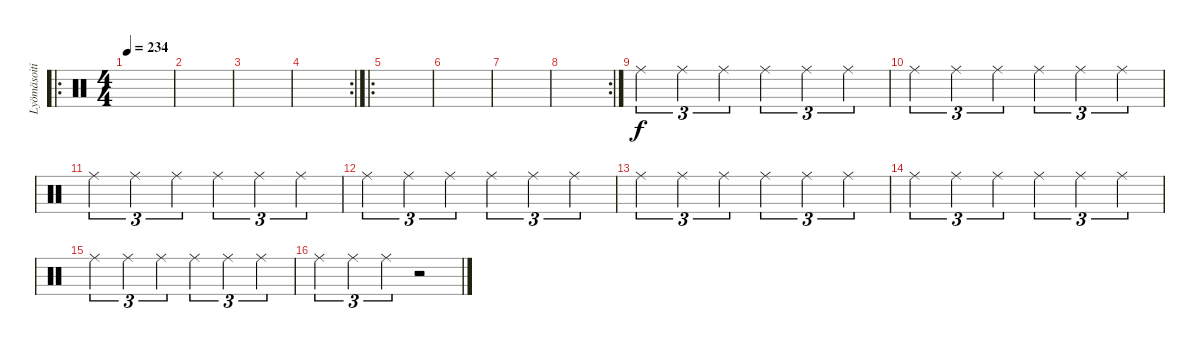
\track ("Lyömäsoitin" "Lyömäsoiti") {instrument percussion}
\staff {score}
\articulation defaults
\ro
\ts (4 4)
\tempo 234
\clef neutral
\ks c
|
|
|
\rc 2
|
\ro
|
|
|
\rc 2
|
"Ride (middle)".4{tu (3 2)} "Ride (middle)".4{tu (3 2)} "Ride (middle)".4{tu (3 2)} "Ride (middle)".4{tu (3 2)} "Ride (middle)".4{tu (3 2)} "Ride (middle)".4{tu (3 2)} |
"Ride (middle)".4{tu (3 2)} "Ride (middle)".4{tu (3 2)} "Ride (middle)".4{tu (3 2)} "Ride (middle)".4{tu (3 2)} "Ride (middle)".4{tu (3 2)} "Ride (middle)".4{tu (3 2)} |
"Ride (middle)".4{tu (3 2)} "Ride (middle)".4{tu (3 2)} "Ride (middle)".4{tu (3 2)} "Ride (middle)".4{tu (3 2)} "Ride (middle)".4{tu (3 2)} "Ride (middle)".4{tu (3 2)} |
"Ride (middle)".4{tu (3 2)} "Ride (middle)".4{tu (3 2)} "Ride (middle)".4{tu (3 2)} "Ride (middle)".4{tu (3 2)} "Ride (middle)".4{tu (3 2)} "Ride (middle)".4{tu (3 2)} |
"Ride (middle)".4{tu (3 2)} "Ride (middle)".4{tu (3 2)} "Ride (middle)".4{tu (3 2)} "Ride (middle)".4{tu (3 2)} "Ride (middle)".4{tu (3 2)} "Ride (middle)".4{tu (3 2)} |
"Ride (middle)".4{tu (3 2)} "Ride (middle)".4{tu (3 2)} "Ride (middle)".4{tu (3 2)} "Ride (middle)".4{tu (3 2)} "Ride (middle)".4{tu (3 2)} "Ride (middle)".4{tu (3 2)} |
"Ride (middle)".4{tu (3 2)} "Ride (middle)".4{tu (3 2)} "Ride (middle)".4{tu (3 2)} "Ride (middle)".4{tu (3 2)} "Ride (middle)".4{tu (3 2)} "Ride (middle)".4{tu (3 2)} |
"Ride (middle)".4{tu (3 2)} "Ride (middle)".4{tu (3 2)} "Ride (middle)".4{tu (3 2)} r.2
